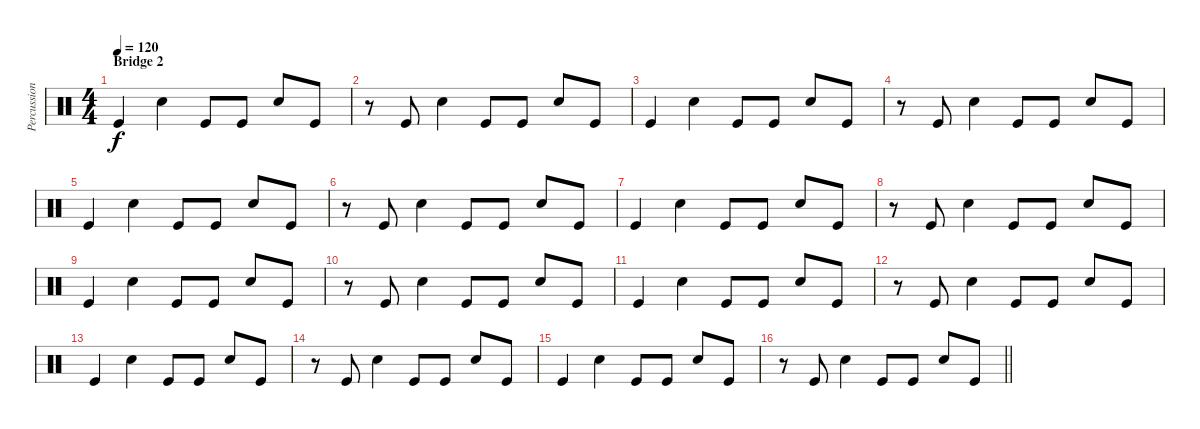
\track ("Percussion" "Percussion") {instrument percussion}
\staff {score}
\articulation defaults
\ts (4 4)
\section ("" "Bridge 2")
\tempo 120
\clef neutral
\ks c "Kick (hit)".4{dy f} "Snare (hit) 2".4 "Kick (hit)".8 "Kick (hit)".8 "Snare (hit) 2".8 "Kick (hit)".8
|
r.8 "Kick (hit)".8 "Snare (hit) 2".4 "Kick (hit)".8 "Kick (hit)".8 "Snare (hit) 2".8 "Kick (hit)".8 |
"Kick (hit)".4 "Snare (hit) 2".4 "Kick (hit)".8 "Kick (hit)".8 "Snare (hit) 2".8 "Kick (hit)".8 |
r.8 "Kick (hit)".8 "Snare (hit) 2".4 "Kick (hit)".8 "Kick (hit)".8 "Snare (hit) 2".8 "Kick (hit)".8 |
"Kick (hit)".4 "Snare (hit) 2".4 "Kick (hit)".8 "Kick (hit)".8 "Snare (hit) 2".8 "Kick (hit)".8 |
r.8 "Kick (hit)".8 "Snare (hit) 2".4 "Kick (hit)".8 "Kick (hit)".8 "Snare (hit) 2".8 "Kick (hit)".8 |
"Kick (hit)".4 "Snare (hit) 2".4 "Kick (hit)".8 "Kick (hit)".8 "Snare (hit) 2".8 "Kick (hit)".8 |
r.8 "Kick (hit)".8 "Snare (hit) 2".4 "Kick (hit)".8 "Kick (hit)".8 "Snare (hit) 2".8 "Kick (hit)".8 |
"Kick (hit)".4 "Snare (hit) 2".4 "Kick (hit)".8 "Kick (hit)".8 "Snare (hit) 2".8 "Kick (hit)".8 |
r.8 "Kick (hit)".8 "Snare (hit) 2".4 "Kick (hit)".8 "Kick (hit)".8 "Snare (hit) 2".8 "Kick (hit)".8 |
"Kick (hit)".4 "Snare (hit) 2".4 "Kick (hit)".8 "Kick (hit)".8 "Snare (hit) 2".8 "Kick (hit)".8 |
r.8 "Kick (hit)".8 "Snare (hit) 2".4 "Kick (hit)".8 "Kick (hit)".8 "Snare (hit) 2".8 "Kick (hit)".8 |
"Kick (hit)".4 "Snare (hit) 2".4 "Kick (hit)".8 "Kick (hit)".8 "Snare (hit) 2".8 "Kick (hit)".8 |
r.8 "Kick (hit)".8 "Snare (hit) 2".4 "Kick (hit)".8 "Kick (hit)".8 "Snare (hit) 2".8 "Kick (hit)".8 |
"Kick (hit)".4 "Snare (hit) 2".4 "Kick (hit)".8 "Kick (hit)".8 "Snare (hit) 2".8 "Kick (hit)".8 |
\barLineRight lightlight
r.8 "Kick (hit)".8 "Snare (hit) 2".4 "Kick (hit)".8 "Kick (hit)".8 "Snare (hit) 2".8 "Kick (hit)".8
